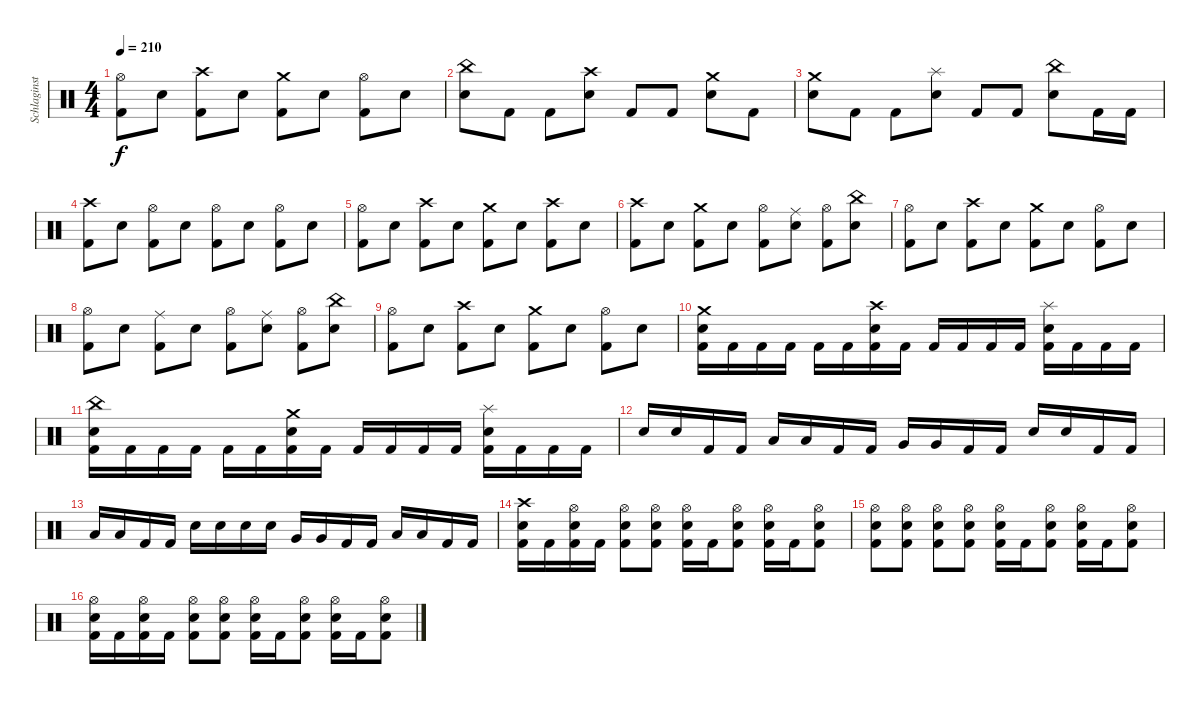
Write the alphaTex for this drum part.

\track ("Schlaginstrumente - Auswahl" "Schlaginst") {instrument percussion}
\staff {score}
\articulation defaults
\ts (4 4)
\tempo 210
\clef neutral
\ks c
("Hi-Hat (open)" "Kick (hit) 2").8{dy f} "Snare (hit) 2".8 ("Crash high (hit)" "Kick (hit) 2").8 "Snare (hit) 2".8 ("Crash medium (hit)" "Kick (hit) 2").8 "Snare (hit) 2".8 ("Hi-Hat (open)" "Kick (hit) 2").8 "Snare (hit) 2".8 |
("China (hit)" "Snare (hit) 2").8 "Kick (hit) 2".8 "Kick (hit) 2".8 ("Crash high (hit)" "Snare (hit) 2").8 "Kick (hit) 2".8 "Kick (hit) 2".8 ("Crash medium (hit)" "Snare (hit) 2").8 "Kick (hit) 2".8 |
("Crash medium (hit)" "Snare (hit) 2").8 "Kick (hit) 2".8 "Kick (hit) 2".8 ("Splash (hit)" "Snare (hit) 2").8 "Kick (hit) 2".8 "Kick (hit) 2".8 ("China (hit)" "Snare (hit) 2").8 "Kick (hit) 2".16 "Kick (hit) 2".16 |
("Crash high (hit)" "Kick (hit) 2").8 "Snare (hit) 2".8 ("Hi-Hat (open)" "Kick (hit) 2").8 "Snare (hit) 2".8 ("Hi-Hat (open)" "Kick (hit) 2").8 "Snare (hit) 2".8 ("Hi-Hat (open)" "Kick (hit) 2").8 "Snare (hit) 2".8 |
("Hi-Hat (open)" "Kick (hit) 2").8 "Snare (hit) 2".8 ("Crash high (hit)" "Kick (hit) 2").8 "Snare (hit) 2".8 ("Crash medium (hit)" "Kick (hit) 2").8 "Snare (hit) 2".8 ("Crash high (hit)" "Kick (hit) 2").8 "Snare (hit) 2".8 |
("Crash high (hit)" "Kick (hit) 2").8 "Snare (hit) 2".8 ("Crash medium (hit)" "Kick (hit) 2").8 "Snare (hit) 2".8 ("Hi-Hat (open)" "Kick (hit) 2").8 ("Ride (middle)" "Snare (hit) 2").8 ("Hi-Hat (open)" "Kick (hit) 2").8 ("China (hit)" "Snare (hit) 2").8 |
("Hi-Hat (open)" "Kick (hit) 2").8 "Snare (hit) 2".8 ("Crash high (hit)" "Kick (hit) 2").8 "Snare (hit) 2".8 ("Crash medium (hit)" "Kick (hit) 2").8 "Snare (hit) 2".8 ("Hi-Hat (open)" "Kick (hit) 2").8 "Snare (hit) 2".8 |
("Hi-Hat (open)" "Kick (hit) 2").8 "Snare (hit) 2".8 ("Ride (middle)" "Kick (hit) 2").8 "Snare (hit) 2".8 ("Hi-Hat (open)" "Kick (hit) 2").8 ("Ride (middle)" "Snare (hit) 2").8 ("Hi-Hat (open)" "Kick (hit) 2").8 ("China (hit)" "Snare (hit) 2").8 |
("Hi-Hat (open)" "Kick (hit) 2").8 "Snare (hit) 2".8 ("Crash high (hit)" "Kick (hit) 2").8 "Snare (hit) 2".8 ("Crash medium (hit)" "Kick (hit) 2").8 "Snare (hit) 2".8 ("Hi-Hat (open)" "Kick (hit) 2").8 "Snare (hit) 2".8 |
("Crash medium (hit)" "Snare (hit) 2" "Kick (hit) 2").16 "Kick (hit) 2".16 "Kick (hit) 2".16 "Kick (hit) 2".16 "Kick (hit) 2".16 "Kick (hit) 2".16 ("Crash high (hit)" "Snare (hit) 2" "Kick (hit) 2").16 "Kick (hit) 2".16 "Kick (hit) 2".16 "Kick (hit) 2".16 "Kick (hit) 2".16 "Kick (hit) 2".16 ("Splash (hit)" "Snare (hit) 2" "Kick (hit) 2").16 "Kick (hit) 2".16 "Kick (hit) 2".16 "Kick (hit) 2".16 |
("China (hit)" "Snare (hit) 2" "Kick (hit) 2").16 "Kick (hit) 2".16 "Kick (hit) 2".16 "Kick (hit) 2".16 "Kick (hit) 2".16 "Kick (hit) 2".16 ("Crash medium (hit)" "Snare (hit) 2" "Kick (hit) 2").16 "Kick (hit) 2".16 "Kick (hit) 2".16 "Kick (hit) 2".16 "Kick (hit) 2".16 "Kick (hit) 2".16 ("Splash (hit)" "Snare (hit) 2" "Kick (hit) 2").16 "Kick (hit) 2".16 "Kick (hit) 2".16 "Kick (hit) 2".16 |
"Snare (hit) 2".16 "Snare (hit) 2".16 "Kick (hit) 2".16 "Kick (hit) 2".16 "Low Tom (hit)".16 "Low Tom (hit)".16 "Kick (hit) 2".16 "Kick (hit) 2".16 "Very Low Tom (hit)".16 "Very Low Tom (hit)".16 "Kick (hit) 2".16 "Kick (hit) 2".16 "Snare (hit) 2".16 "Snare (hit) 2".16 "Kick (hit) 2".16 "Kick (hit) 2".16 |
"Low Tom (hit)".16 "Low Tom (hit)".16 "Kick (hit) 2".16 "Kick (hit) 2".16 "Snare (hit) 2".16 "Snare (hit) 2".16 "Snare (hit) 2".16 "Snare (hit) 2".16 "Very Low Tom (hit)".16 "Very Low Tom (hit)".16 "Kick (hit) 2".16 "Kick (hit) 2".16 "Low Floor Tom (hit)".16 "Low Floor Tom (hit)".16 "Kick (hit) 2".16 "Kick (hit) 2".16 |
("Crash high (hit)" "Snare (hit) 2" "Kick (hit) 2").16 "Kick (hit) 2".16 ("Hi-Hat (open)" "Snare (hit) 2" "Kick (hit) 2").16 "Kick (hit) 2".16 ("Hi-Hat (open)" "Snare (hit) 2" "Kick (hit) 2").8 ("Hi-Hat (open)" "Snare (hit) 2" "Kick (hit) 2").8 ("Hi-Hat (open)" "Snare (hit) 2" "Kick (hit) 2").16 "Kick (hit) 2".16 ("Hi-Hat (open)" "Snare (hit) 2" "Kick (hit) 2").8 ("Hi-Hat (open)" "Snare (hit) 2" "Kick (hit) 2").16 "Kick (hit) 2".16 ("Hi-Hat (open)" "Snare (hit) 2" "Kick (hit) 2").8 |
("Hi-Hat (open)" "Snare (hit) 2" "Kick (hit) 2").8 ("Hi-Hat (open)" "Snare (hit) 2" "Kick (hit) 2").8 ("Hi-Hat (open)" "Snare (hit) 2" "Kick (hit) 2").8 ("Hi-Hat (open)" "Snare (hit) 2" "Kick (hit) 2").8 ("Hi-Hat (open)" "Snare (hit) 2" "Kick (hit) 2").16 "Kick (hit) 2".16 ("Hi-Hat (open)" "Snare (hit) 2" "Kick (hit) 2").8 ("Hi-Hat (open)" "Snare (hit) 2" "Kick (hit) 2").16 "Kick (hit) 2".16 ("Hi-Hat (open)" "Snare (hit) 2" "Kick (hit) 2").8 |
("Hi-Hat (open)" "Snare (hit) 2" "Kick (hit) 2").16 "Kick (hit) 2".16 ("Hi-Hat (open)" "Snare (hit) 2" "Kick (hit) 2").16 "Kick (hit) 2".16 ("Hi-Hat (open)" "Snare (hit) 2" "Kick (hit) 2").8 ("Hi-Hat (open)" "Snare (hit) 2" "Kick (hit) 2").8 ("Hi-Hat (open)" "Snare (hit) 2" "Kick (hit) 2").16 "Kick (hit) 2".16 ("Hi-Hat (open)" "Snare (hit) 2" "Kick (hit) 2").8 ("Hi-Hat (open)" "Snare (hit) 2" "Kick (hit) 2").16 "Kick (hit) 2".16 ("Hi-Hat (open)" "Snare (hit) 2" "Kick (hit) 2").8
